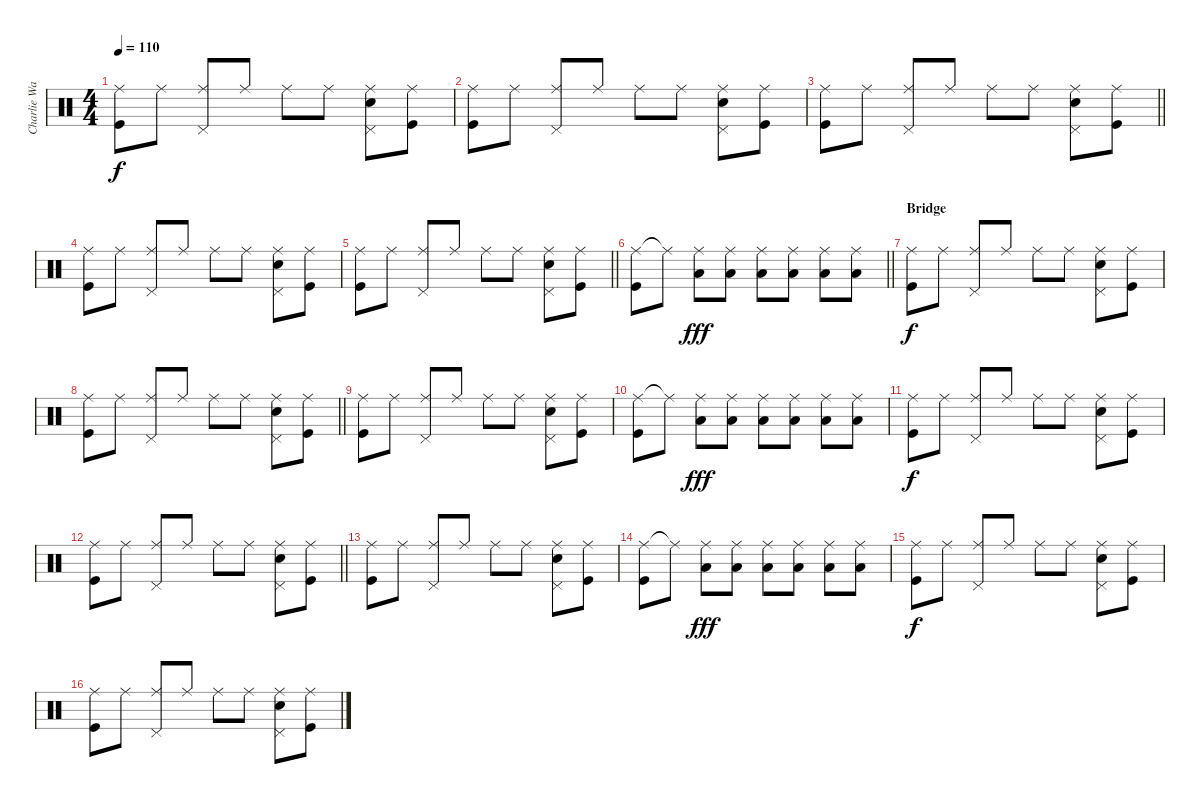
\track ("Charlie Watts" "Charlie Wa") {instrument percussion}
\staff {score}
\articulation defaults
\ts (4 4)
\tempo 110
\clef neutral
\ks c
("Ride (middle)" "Kick (hit)").8{dy f} "Ride (middle)".8 ("Ride (middle)" "Pedal Hi-Hat (hit)").8 "Ride (middle)".8 "Ride (middle)".8 "Ride (middle)".8 ("Ride (middle)" "Snare (hit) 2" "Pedal Hi-Hat (hit)").8 ("Ride (middle)" "Kick (hit)").8 |
("Ride (middle)" "Kick (hit)").8 "Ride (middle)".8 ("Ride (middle)" "Pedal Hi-Hat (hit)").8 "Ride (middle)".8 "Ride (middle)".8 "Ride (middle)".8 ("Ride (middle)" "Snare (hit) 2" "Pedal Hi-Hat (hit)").8 ("Ride (middle)" "Kick (hit)").8 |
\barLineRight lightlight
("Ride (middle)" "Kick (hit)").8 "Ride (middle)".8 ("Ride (middle)" "Pedal Hi-Hat (hit)").8 "Ride (middle)".8 "Ride (middle)".8 "Ride (middle)".8 ("Ride (middle)" "Snare (hit) 2" "Pedal Hi-Hat (hit)").8 ("Ride (middle)" "Kick (hit)").8 |
("Ride (middle)" "Kick (hit)").8 "Ride (middle)".8 ("Ride (middle)" "Pedal Hi-Hat (hit)").8 "Ride (middle)".8 "Ride (middle)".8 "Ride (middle)".8 ("Ride (middle)" "Snare (hit) 2" "Pedal Hi-Hat (hit)").8 ("Ride (middle)" "Kick (hit)").8 |
\barLineRight lightlight
("Ride (middle)" "Kick (hit)").8 "Ride (middle)".8 ("Ride (middle)" "Pedal Hi-Hat (hit)").8 "Ride (middle)".8 "Ride (middle)".8 "Ride (middle)".8 ("Ride (middle)" "Snare (hit) 2" "Pedal Hi-Hat (hit)").8 ("Ride (middle)" "Kick (hit)").8 |
\barLineRight lightlight
("Ride (middle)" "Kick (hit)").8 "Ride (middle)"{t}.8 ("Ride (middle)" "Low Tom (hit)").8{dy fff} ("Ride (middle)" "Low Tom (hit)").8 ("Ride (middle)" "Low Tom (hit)").8 ("Ride (middle)" "Low Tom (hit)").8 ("Ride (middle)" "Low Tom (hit)").8 ("Ride (middle)" "Low Tom (hit)").8 |
\section ("" "Bridge")
("Ride (middle)" "Kick (hit)").8{dy f} "Ride (middle)".8 ("Ride (middle)" "Pedal Hi-Hat (hit)").8 "Ride (middle)".8 "Ride (middle)".8 "Ride (middle)".8 ("Ride (middle)" "Snare (hit) 2" "Pedal Hi-Hat (hit)").8 ("Ride (middle)" "Kick (hit)").8 |
\barLineRight lightlight
("Ride (middle)" "Kick (hit)").8 "Ride (middle)".8 ("Ride (middle)" "Pedal Hi-Hat (hit)").8 "Ride (middle)".8 "Ride (middle)".8 "Ride (middle)".8 ("Ride (middle)" "Snare (hit) 2" "Pedal Hi-Hat (hit)").8 ("Ride (middle)" "Kick (hit)").8 |
("Ride (middle)" "Kick (hit)").8 "Ride (middle)".8 ("Ride (middle)" "Pedal Hi-Hat (hit)").8 "Ride (middle)".8 "Ride (middle)".8 "Ride (middle)".8 ("Ride (middle)" "Snare (hit) 2" "Pedal Hi-Hat (hit)").8 ("Ride (middle)" "Kick (hit)").8 |
("Ride (middle)" "Kick (hit)").8 "Ride (middle)"{t}.8 ("Ride (middle)" "Low Tom (hit)").8{dy fff} ("Ride (middle)" "Low Tom (hit)").8 ("Ride (middle)" "Low Tom (hit)").8 ("Ride (middle)" "Low Tom (hit)").8 ("Ride (middle)" "Low Tom (hit)").8 ("Ride (middle)" "Low Tom (hit)").8 |
("Ride (middle)" "Kick (hit)").8{dy f} "Ride (middle)".8 ("Ride (middle)" "Pedal Hi-Hat (hit)").8 "Ride (middle)".8 "Ride (middle)".8 "Ride (middle)".8 ("Ride (middle)" "Snare (hit) 2" "Pedal Hi-Hat (hit)").8 ("Ride (middle)" "Kick (hit)").8 |
\barLineRight lightlight
("Ride (middle)" "Kick (hit)").8 "Ride (middle)".8 ("Ride (middle)" "Pedal Hi-Hat (hit)").8 "Ride (middle)".8 "Ride (middle)".8 "Ride (middle)".8 ("Ride (middle)" "Snare (hit) 2" "Pedal Hi-Hat (hit)").8 ("Ride (middle)" "Kick (hit)").8 |
("Ride (middle)" "Kick (hit)").8 "Ride (middle)".8 ("Ride (middle)" "Pedal Hi-Hat (hit)").8 "Ride (middle)".8 "Ride (middle)".8 "Ride (middle)".8 ("Ride (middle)" "Snare (hit) 2" "Pedal Hi-Hat (hit)").8 ("Ride (middle)" "Kick (hit)").8 |
("Ride (middle)" "Kick (hit)").8 "Ride (middle)"{t}.8 ("Ride (middle)" "Low Tom (hit)").8{dy fff} ("Ride (middle)" "Low Tom (hit)").8 ("Ride (middle)" "Low Tom (hit)").8 ("Ride (middle)" "Low Tom (hit)").8 ("Ride (middle)" "Low Tom (hit)").8 ("Ride (middle)" "Low Tom (hit)").8 |
("Ride (middle)" "Kick (hit)").8{dy f} "Ride (middle)".8 ("Ride (middle)" "Pedal Hi-Hat (hit)").8 "Ride (middle)".8 "Ride (middle)".8 "Ride (middle)".8 ("Ride (middle)" "Snare (hit) 2" "Pedal Hi-Hat (hit)").8 ("Ride (middle)" "Kick (hit)").8 |
("Ride (middle)" "Kick (hit)").8 "Ride (middle)".8 ("Ride (middle)" "Pedal Hi-Hat (hit)").8 "Ride (middle)".8 "Ride (middle)".8 "Ride (middle)".8 ("Ride (middle)" "Snare (hit) 2" "Pedal Hi-Hat (hit)").8 ("Ride (middle)" "Kick (hit)").8
